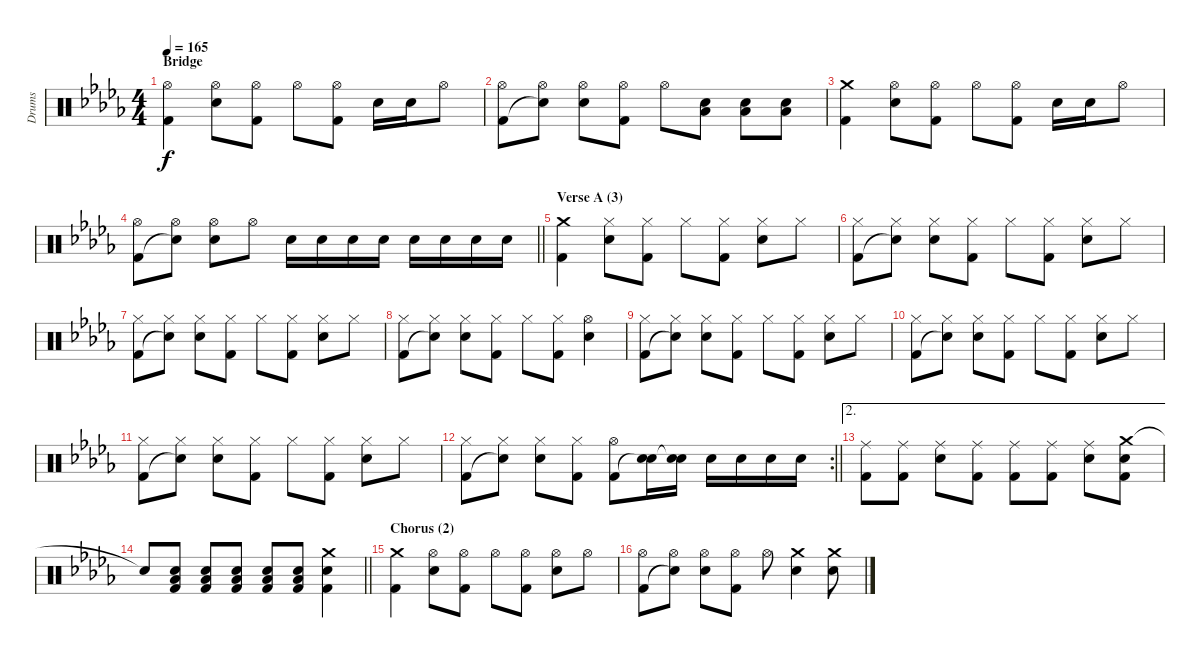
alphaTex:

\track ("Drums" "Drums") {instrument percussion}
\staff {score}
\articulation defaults
\ts (4 4)
\section ("" "Bridge")
\tempo 165
\clef neutral
\ks bbminor
("Hi-Hat (open)" "Kick (hit) 2").4{dy f} ("Hi-Hat (open)" "Electric Snare (hit)").8 ("Hi-Hat (open)" "Kick (hit) 2").8 "Hi-Hat (open)".8 ("Hi-Hat (open)" "Kick (hit) 2").8 "Electric Snare (hit)".16 "Electric Snare (hit)".16 "Hi-Hat (open)".8 |
("Hi-Hat (open)" "Kick (hit) 2").8 ("Hi-Hat (open)" "Snare (hit)"{t}).8 ("Hi-Hat (open)" "Electric Snare (hit)").8 ("Hi-Hat (open)" "Kick (hit) 2").8 "Hi-Hat (open)".8 ("Electric Snare (hit)" "Low Floor Tom (hit)").8 ("Electric Snare (hit)" "Low Floor Tom (hit)").8 ("Electric Snare (hit)" "Low Floor Tom (hit)").8 |
("Crash medium (hit)" "Kick (hit) 2").4 ("Hi-Hat (open)" "Electric Snare (hit)").8 ("Hi-Hat (open)" "Kick (hit) 2").8 "Hi-Hat (open)".8 ("Hi-Hat (open)" "Kick (hit) 2").8 "Electric Snare (hit)".16 "Electric Snare (hit)".16 "Hi-Hat (open)".8 |
\barLineRight lightlight
("Hi-Hat (open)" "Kick (hit) 2").8 ("Hi-Hat (open)" "Snare (hit)"{t}).8 ("Hi-Hat (open)" "Electric Snare (hit)").8 "Hi-Hat (open)".8 "Electric Snare (hit)".16 "Electric Snare (hit)".16 "Electric Snare (hit)".16 "Electric Snare (hit)".16 "Electric Snare (hit)".16 "Electric Snare (hit)".16 "Electric Snare (hit)".16 "Electric Snare (hit)".16 |
\section ("" "Verse A (3)")
("Crash medium (hit)" "Kick (hit) 2").4 ("Hi-Hat (closed)" "Electric Snare (hit)").8 ("Hi-Hat (closed)" "Kick (hit) 2").8 "Hi-Hat (closed)".8 ("Hi-Hat (closed)" "Kick (hit) 2").8 ("Hi-Hat (closed)" "Electric Snare (hit)").8 "Hi-Hat (closed)".8 |
("Hi-Hat (closed)" "Kick (hit) 2").8 ("Hi-Hat (closed)" "Snare (hit)"{t}).8 ("Hi-Hat (closed)" "Electric Snare (hit)").8 ("Hi-Hat (closed)" "Kick (hit) 2").8 "Hi-Hat (closed)".8 ("Hi-Hat (closed)" "Kick (hit) 2").8 ("Hi-Hat (closed)" "Electric Snare (hit)").8 "Hi-Hat (closed)".8 |
("Hi-Hat (closed)" "Kick (hit) 2").8 ("Hi-Hat (closed)" "Snare (hit)"{t}).8 ("Hi-Hat (closed)" "Electric Snare (hit)").8 ("Hi-Hat (closed)" "Kick (hit) 2").8 "Hi-Hat (closed)".8 ("Hi-Hat (closed)" "Kick (hit) 2").8 ("Hi-Hat (closed)" "Electric Snare (hit)").8 "Hi-Hat (closed)".8 |
("Hi-Hat (closed)" "Kick (hit) 2").8 ("Hi-Hat (closed)" "Snare (hit)"{t}).8 ("Hi-Hat (closed)" "Electric Snare (hit)").8 ("Hi-Hat (closed)" "Kick (hit) 2").8 "Hi-Hat (closed)".8 ("Hi-Hat (closed)" "Kick (hit) 2").8 ("Hi-Hat (open)" "Electric Snare (hit)").4 |
("Hi-Hat (closed)" "Kick (hit) 2").8 ("Hi-Hat (closed)" "Snare (hit)"{t}).8 ("Hi-Hat (closed)" "Electric Snare (hit)").8 ("Hi-Hat (closed)" "Kick (hit) 2").8 "Hi-Hat (closed)".8 ("Hi-Hat (closed)" "Kick (hit) 2").8 ("Hi-Hat (closed)" "Electric Snare (hit)").8 "Hi-Hat (closed)".8 |
("Hi-Hat (closed)" "Kick (hit) 2").8 ("Hi-Hat (closed)" "Snare (hit)"{t}).8 ("Hi-Hat (closed)" "Electric Snare (hit)").8 ("Hi-Hat (closed)" "Kick (hit) 2").8 "Hi-Hat (closed)".8 ("Hi-Hat (closed)" "Kick (hit) 2").8 ("Hi-Hat (closed)" "Electric Snare (hit)").8 "Hi-Hat (closed)".8 |
("Hi-Hat (closed)" "Kick (hit) 2").8 ("Hi-Hat (closed)" "Snare (hit)"{t}).8 ("Hi-Hat (closed)" "Electric Snare (hit)").8 ("Hi-Hat (closed)" "Kick (hit) 2").8 "Hi-Hat (closed)".8 ("Hi-Hat (closed)" "Kick (hit) 2").8 ("Hi-Hat (closed)" "Electric Snare (hit)").8 "Hi-Hat (closed)".8 |
\rc 2
\barLineRight lightlight
("Hi-Hat (closed)" "Kick (hit) 2").8 ("Hi-Hat (closed)" "Snare (hit)"{t}).8 ("Hi-Hat (closed)" "Electric Snare (hit)").8 ("Hi-Hat (closed)" "Kick (hit) 2").8 ("Hi-Hat (open)" "Kick (hit) 2").8 ("Electric Snare (hit)" "Snare (hit)"{t}).16 ("Electric Snare (hit)" "Snare (hit)"{t}).16 "Electric Snare (hit)".16 "Electric Snare (hit)".16 "Electric Snare (hit)".16 "Electric Snare (hit)".16 |
\ae 2
("Ride (middle)" "Kick (hit) 2").8 ("Ride (middle)" "Kick (hit) 2").8 ("Ride (middle)" "Electric Snare (hit)").8 ("Ride (middle)" "Kick (hit) 2").8 ("Ride (middle)" "Kick (hit) 2").8 ("Ride (middle)" "Kick (hit) 2").8 ("Ride (middle)" "Electric Snare (hit)").8 ("Crash medium (hit)" "Electric Snare (hit)" "Kick (hit) 2").8 |
\barLineRight lightlight "Snare (hit)"{t}.8
("Electric Snare (hit)" "Low Floor Tom (hit)" "Kick (hit) 2").8 ("Electric Snare (hit)" "Low Floor Tom (hit)" "Kick (hit) 2").8 ("Electric Snare (hit)" "Low Floor Tom (hit)" "Kick (hit) 2").8 ("Electric Snare (hit)" "Low Floor Tom (hit)" "Kick (hit) 2").8 ("Electric Snare (hit)" "Low Floor Tom (hit)" "Kick (hit) 2").8 ("Crash medium (hit)" "Electric Snare (hit)" "Kick (hit) 2").4 |
\section ("" "Chorus (2)")
("Crash medium (hit)" "Kick (hit) 2").4 ("Hi-Hat (open)" "Electric Snare (hit)").8 ("Hi-Hat (open)" "Kick (hit) 2").8 "Hi-Hat (open)".8 ("Hi-Hat (open)" "Kick (hit) 2").8 ("Hi-Hat (open)" "Electric Snare (hit)").8 "Hi-Hat (open)".8 |
("Hi-Hat (open)" "Kick (hit) 2").8 ("Hi-Hat (open)" "Snare (hit)"{t}).8 ("Hi-Hat (open)" "Electric Snare (hit)").8 ("Hi-Hat (open)" "Kick (hit) 2").8 "Hi-Hat (open)".8 ("Crash medium (hit)" "Electric Snare (hit)").4 ("Crash medium (hit)" "Electric Snare (hit)").8
